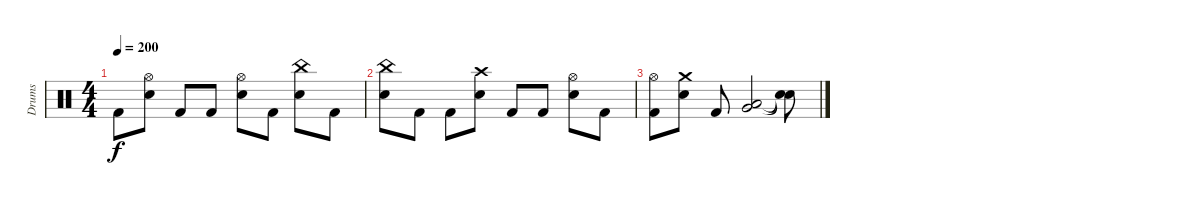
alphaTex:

\track ("Drums" "Drums") {instrument percussion}
\staff {score}
\articulation defaults
\ts (4 4)
\tempo 200
\clef neutral
\ks c "Kick (hit) 2".8{dy f}
("Hi-Hat (open)" "Electric Snare (hit)").8 "Kick (hit) 2".8 "Kick (hit) 2".8 ("Hi-Hat (open)" "Electric Snare (hit)").8 "Kick (hit) 2".8 ("China (hit)" "Electric Snare (hit)").8 "Kick (hit) 2".8 |
("China (hit)" "Electric Snare (hit)").8 "Kick (hit) 2".8 "Kick (hit) 2".8 ("Crash high (hit)" "Electric Snare (hit)").8 "Kick (hit) 2".8 "Kick (hit) 2".8 ("Hi-Hat (open)" "Electric Snare (hit)").8 "Kick (hit) 2".8 |
("Hi-Hat (open)" "Kick (hit) 2").8 ("Crash medium (hit)" "Electric Snare (hit)").8 "Kick (hit) 2".8 ("Very Low Tom (hit)" "Low Floor Tom (hit)").2 ("Snare (hit)"{t} "Snare (hit)"{t}).8
